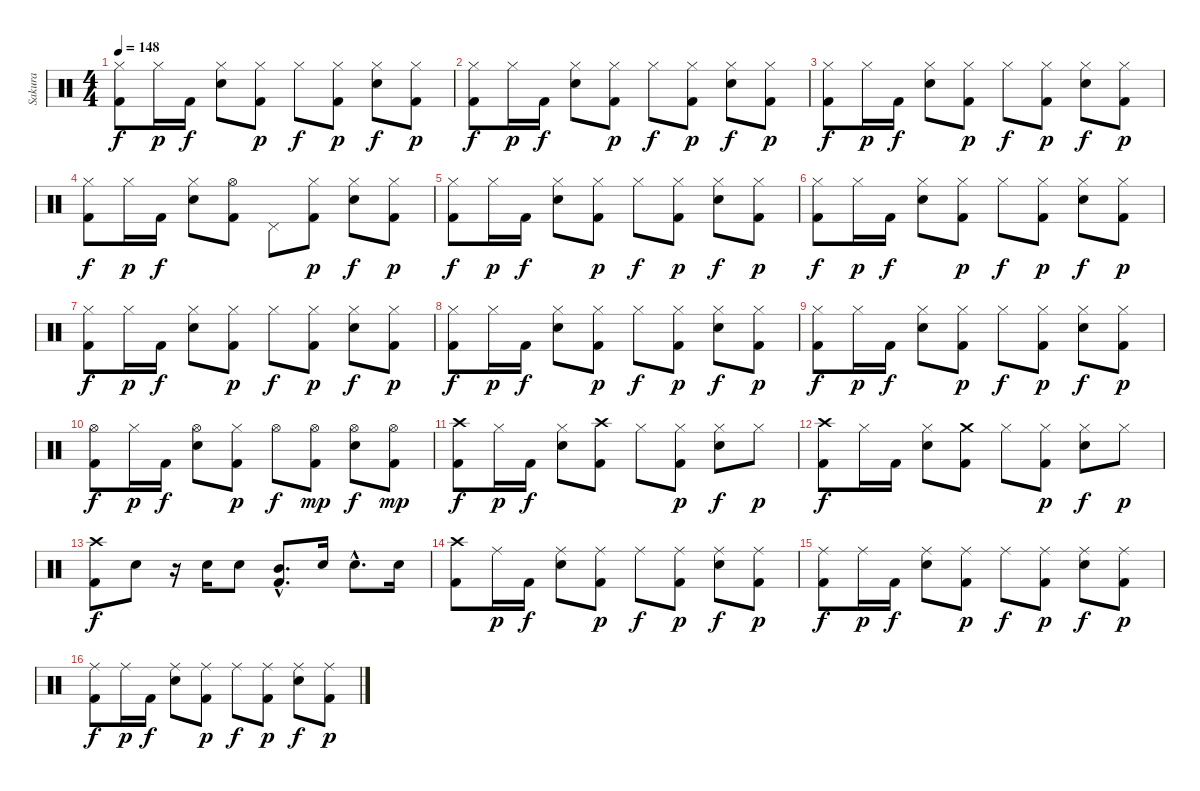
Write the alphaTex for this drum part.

\track ("Sakura" "Sakura") {instrument percussion}
\staff {score}
\articulation defaults
\ts (4 4)
\tempo 148
\clef neutral
\ks c
("Hi-Hat (closed)" "Kick (hit) 2").8{dy f} "Hi-Hat (closed)".16{dy p} "Kick (hit) 2".16{dy f} ("Hi-Hat (closed)" "Electric Snare (hit)").8 ("Hi-Hat (closed)" "Kick (hit) 2").8{dy p} "Hi-Hat (closed)".8{dy f} ("Hi-Hat (closed)" "Kick (hit) 2").8{dy p} ("Hi-Hat (closed)" "Electric Snare (hit)").8{dy f} ("Hi-Hat (closed)" "Kick (hit) 2").8{dy p} |
("Hi-Hat (closed)" "Kick (hit) 2").8{dy f} "Hi-Hat (closed)".16{dy p} "Kick (hit) 2".16{dy f} ("Hi-Hat (closed)" "Electric Snare (hit)").8 ("Hi-Hat (closed)" "Kick (hit) 2").8{dy p} "Hi-Hat (closed)".8{dy f} ("Hi-Hat (closed)" "Kick (hit) 2").8{dy p} ("Hi-Hat (closed)" "Electric Snare (hit)").8{dy f} ("Hi-Hat (closed)" "Kick (hit) 2").8{dy p} |
("Hi-Hat (closed)" "Kick (hit) 2").8{dy f} "Hi-Hat (closed)".16{dy p} "Kick (hit) 2".16{dy f} ("Hi-Hat (closed)" "Electric Snare (hit)").8 ("Hi-Hat (closed)" "Kick (hit) 2").8{dy p} "Hi-Hat (closed)".8{dy f} ("Hi-Hat (closed)" "Kick (hit) 2").8{dy p} ("Hi-Hat (closed)" "Electric Snare (hit)").8{dy f} ("Hi-Hat (closed)" "Kick (hit) 2").8{dy p} |
("Hi-Hat (closed)" "Kick (hit) 2").8{dy f} "Hi-Hat (closed)".16{dy p} "Kick (hit) 2".16{dy f} ("Hi-Hat (closed)" "Electric Snare (hit)").8 ("Hi-Hat (open)" "Kick (hit) 2").8 "Pedal Hi-Hat (hit)".8 ("Hi-Hat (closed)" "Kick (hit) 2").8{dy p} ("Hi-Hat (closed)" "Electric Snare (hit)").8{dy f} ("Hi-Hat (closed)" "Kick (hit) 2").8{dy p} |
("Hi-Hat (closed)" "Kick (hit) 2").8{dy f} "Hi-Hat (closed)".16{dy p} "Kick (hit) 2".16{dy f} ("Hi-Hat (closed)" "Electric Snare (hit)").8 ("Hi-Hat (closed)" "Kick (hit) 2").8{dy p} "Hi-Hat (closed)".8{dy f} ("Hi-Hat (closed)" "Kick (hit) 2").8{dy p} ("Hi-Hat (closed)" "Electric Snare (hit)").8{dy f} ("Hi-Hat (closed)" "Kick (hit) 2").8{dy p} |
("Hi-Hat (closed)" "Kick (hit) 2").8{dy f} "Hi-Hat (closed)".16{dy p} "Kick (hit) 2".16{dy f} ("Hi-Hat (closed)" "Electric Snare (hit)").8 ("Hi-Hat (closed)" "Kick (hit) 2").8{dy p} "Hi-Hat (closed)".8{dy f} ("Hi-Hat (closed)" "Kick (hit) 2").8{dy p} ("Hi-Hat (closed)" "Electric Snare (hit)").8{dy f} ("Hi-Hat (closed)" "Kick (hit) 2").8{dy p} |
("Hi-Hat (closed)" "Kick (hit) 2").8{dy f} "Hi-Hat (closed)".16{dy p} "Kick (hit) 2".16{dy f} ("Hi-Hat (closed)" "Electric Snare (hit)").8 ("Hi-Hat (closed)" "Kick (hit) 2").8{dy p} "Hi-Hat (closed)".8{dy f} ("Hi-Hat (closed)" "Kick (hit) 2").8{dy p} ("Hi-Hat (closed)" "Electric Snare (hit)").8{dy f} ("Hi-Hat (closed)" "Kick (hit) 2").8{dy p} |
("Hi-Hat (closed)" "Kick (hit) 2").8{dy f} "Hi-Hat (closed)".16{dy p} "Kick (hit) 2".16{dy f} ("Hi-Hat (closed)" "Electric Snare (hit)").8 ("Hi-Hat (closed)" "Kick (hit) 2").8{dy p} "Hi-Hat (closed)".8{dy f} ("Hi-Hat (closed)" "Kick (hit) 2").8{dy p} ("Hi-Hat (closed)" "Electric Snare (hit)").8{dy f} ("Hi-Hat (closed)" "Kick (hit) 2").8{dy p} |
("Hi-Hat (closed)" "Kick (hit) 2").8{dy f} "Hi-Hat (closed)".16{dy p} "Kick (hit) 2".16{dy f} ("Hi-Hat (closed)" "Electric Snare (hit)").8 ("Hi-Hat (closed)" "Kick (hit) 2").8{dy p} "Hi-Hat (closed)".8{dy f} ("Hi-Hat (closed)" "Kick (hit) 2").8{dy p} ("Hi-Hat (closed)" "Electric Snare (hit)").8{dy f} ("Hi-Hat (closed)" "Kick (hit) 2").8{dy p} |
("Hi-Hat (open)" "Kick (hit) 2").8{dy f} "Hi-Hat (closed)".16{dy p} "Kick (hit) 2".16{dy f} ("Hi-Hat (open)" "Electric Snare (hit)").8 ("Hi-Hat (closed)" "Kick (hit) 2").8{dy p} "Hi-Hat (open)".8{dy f} ("Hi-Hat (open)" "Kick (hit) 2").8{dy mp} ("Hi-Hat (open)" "Electric Snare (hit)").8{dy f} ("Hi-Hat (open)" "Kick (hit) 2").8{dy mp} |
("Crash high (hit)" "Kick (hit) 2").8{dy f} "Hi-Hat (closed)".16{dy p} "Kick (hit) 2".16{dy f} ("Hi-Hat (closed)" "Electric Snare (hit)").8 ("Crash high (hit)" "Kick (hit) 2").8 "Hi-Hat (closed)".8 ("Hi-Hat (closed)" "Kick (hit) 2").8{dy p} ("Hi-Hat (closed)" "Electric Snare (hit)").8{dy f} "Hi-Hat (closed)".8{dy p} |
("Crash high (hit)" "Kick (hit) 2").8{dy f} "Hi-Hat (closed)".16 "Kick (hit) 2".16 ("Hi-Hat (closed)" "Electric Snare (hit)").8 ("Crash medium (hit)" "Kick (hit) 2").8 "Hi-Hat (closed)".8 ("Hi-Hat (closed)" "Kick (hit) 2").8{dy p} ("Hi-Hat (closed)" "Electric Snare (hit)").8{dy f} "Hi-Hat (closed)".8{dy p} |
("Crash high (hit)" "Kick (hit) 2").8{dy f} "Snare (hit) 2".8 r.16 "Snare (hit) 2".16 "Snare (hit) 2".8 ("Mid Tom (hit)"{hac} "Kick (hit) 2"{hac}).8{d} "Snare (hit) 2".16 "Snare (hit) 2"{hac}.8{d} "Snare (hit) 2".16 |
("Crash high (hit)" "Kick (hit) 2").8 "Ride (middle)".16{dy p} "Kick (hit) 2".16{dy f} ("Ride (middle)" "Electric Snare (hit)").8 ("Ride (middle)" "Kick (hit) 2").8{dy p} "Ride (middle)".8{dy f} ("Ride (middle)" "Kick (hit) 2").8{dy p} ("Ride (middle)" "Electric Snare (hit)").8{dy f} ("Ride (middle)" "Kick (hit) 2").8{dy p} |
("Ride (middle)" "Kick (hit) 2").8{dy f} "Ride (middle)".16{dy p} "Kick (hit) 2".16{dy f} ("Ride (middle)" "Electric Snare (hit)").8 ("Ride (middle)" "Kick (hit) 2").8{dy p} "Ride (middle)".8{dy f} ("Ride (middle)" "Kick (hit) 2").8{dy p} ("Ride (middle)" "Electric Snare (hit)").8{dy f} ("Ride (middle)" "Kick (hit) 2").8{dy p} |
("Ride (middle)" "Kick (hit) 2").8{dy f} "Ride (middle)".16{dy p} "Kick (hit) 2".16{dy f} ("Ride (middle)" "Electric Snare (hit)").8 ("Ride (middle)" "Kick (hit) 2").8{dy p} "Ride (middle)".8{dy f} ("Ride (middle)" "Kick (hit) 2").8{dy p} ("Ride (middle)" "Electric Snare (hit)").8{dy f} ("Ride (middle)" "Kick (hit) 2").8{dy p}
